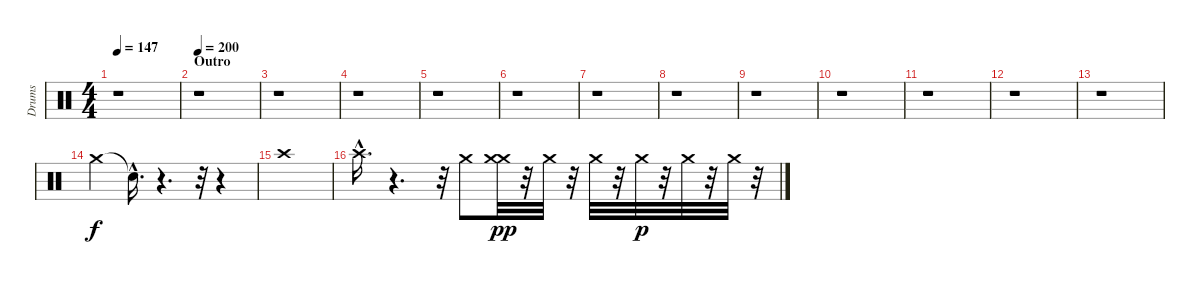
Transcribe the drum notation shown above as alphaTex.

\track ("Drums" "Drums") {instrument percussion}
\staff {score}
\articulation defaults
\ts (4 4)
\tempo 147
\clef neutral
\ks c
r.1{dy f} |
\section ("" "Outro")
\tempo 200
r.1 |
r.1 |
r.1 |
r.1 |
r.1 |
r.1 |
r.1 |
r.1 |
r.1 |
r.1 |
r.1 |
r.1 |
"Crash medium (hit)".4 "Snare (hit)"{hac t}.16{d} r.4{d} r.32 r.4 |
"Crash high (hit)".1 |
"Crash high (hit)"{hac}.16{d} r.4{d} r.32 "Crash medium (hit)".8 ("Crash medium (hit)" "Crash medium (hit)").32{dy pp} r.32 "Crash medium (hit)".32 r.32 "Crash medium (hit)".32 r.32 "Crash medium (hit)".32{dy p} r.32 "Crash medium (hit)".32 r.32 "Crash medium (hit)".32 r.32
